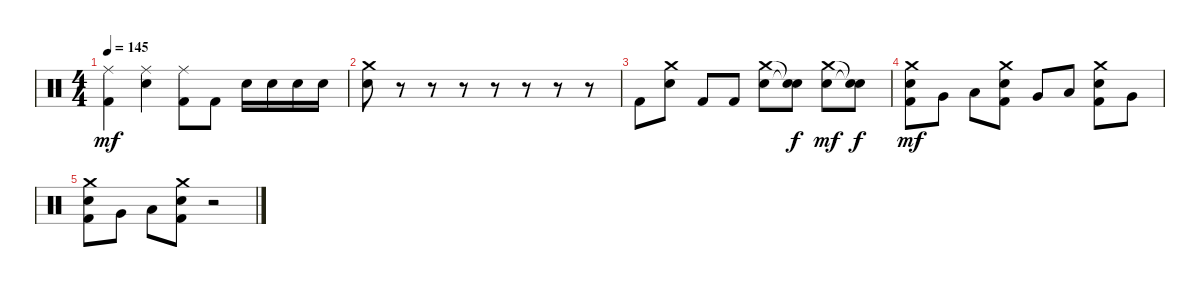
\track "" {instrument percussion}
\staff {score}
\articulation defaults
\ts (4 4)
\tempo 145
\clef neutral
\ks c
("Ride (middle)" "Kick (hit) 2").4{dy mf} ("Ride (middle)" "Snare (hit) 2").4 ("Ride (middle)" "Kick (hit) 2").8 "Kick (hit) 2".8 "Snare (hit) 2".16 "Snare (hit) 2".16 "Snare (hit) 2".16 "Snare (hit) 2".16 |
("Crash medium (hit)" "Snare (hit) 2").8 r.8 r.8 r.8 r.8 r.8 r.8 r.8 |
"Kick (hit) 2".8 ("Crash medium (hit)" "Snare (hit) 2").8 "Kick (hit) 2".8 "Kick (hit) 2".8 ("Crash medium (hit)" "Snare (hit) 2").8 ("Snare (hit)"{t} "Snare (hit)"{t}).8{dy f} ("Crash medium (hit)" "Snare (hit) 2").8{dy mf} ("Snare (hit)"{t} "Snare (hit)"{t}).8{dy f} |
("Crash medium (hit)" "Snare (hit) 2" "Kick (hit) 2").8{dy mf} "Very Low Tom (hit)".8 "Low Floor Tom (hit)".8 ("Crash medium (hit)" "Snare (hit) 2" "Kick (hit) 2").8 "Very Low Tom (hit)".8 "Low Floor Tom (hit)".8 ("Crash medium (hit)" "Snare (hit) 2" "Kick (hit) 2").8 "Very Low Tom (hit)".8 |
("Crash medium (hit)" "Snare (hit) 2" "Kick (hit) 2").8 "Very Low Tom (hit)".8 "Low Floor Tom (hit)".8 ("Crash medium (hit)" "Snare (hit) 2" "Kick (hit) 2").8 r.2
